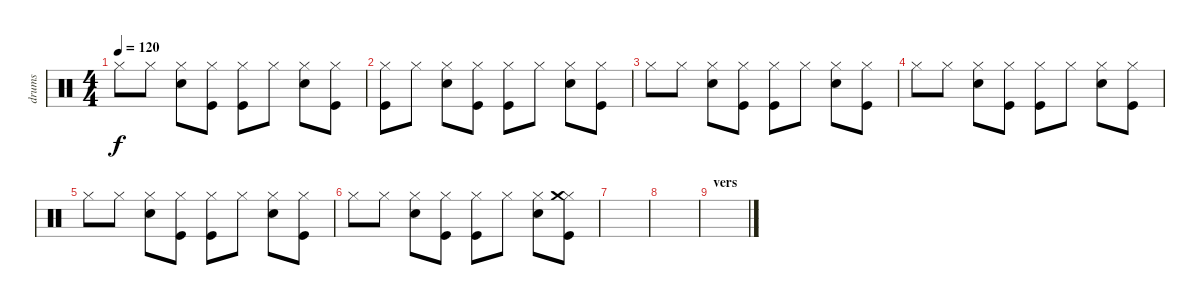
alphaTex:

\track ("drums" "drums") {instrument percussion}
\staff {score}
\articulation defaults
\ts (4 4)
\tempo 120
\clef neutral
\ks c "Hi-Hat (closed)".8{dy f} "Hi-Hat (closed)".8
("Electric Snare (hit)" "Hi-Hat (closed)").8 ("Kick (hit)" "Hi-Hat (closed)").8 ("Kick (hit)" "Hi-Hat (closed)").8 "Hi-Hat (closed)".8 ("Electric Snare (hit)" "Hi-Hat (closed)").8 ("Kick (hit)" "Hi-Hat (closed)").8 |
("Kick (hit)" "Hi-Hat (closed)").8 "Hi-Hat (closed)".8 ("Electric Snare (hit)" "Hi-Hat (closed)").8 ("Kick (hit)" "Hi-Hat (closed)").8 ("Kick (hit)" "Hi-Hat (closed)").8 "Hi-Hat (closed)".8 ("Electric Snare (hit)" "Hi-Hat (closed)").8 ("Kick (hit)" "Hi-Hat (closed)").8 |
"Hi-Hat (closed)".8 "Hi-Hat (closed)".8 ("Electric Snare (hit)" "Hi-Hat (closed)").8 ("Kick (hit)" "Hi-Hat (closed)").8 ("Kick (hit)" "Hi-Hat (closed)").8 "Hi-Hat (closed)".8 ("Electric Snare (hit)" "Hi-Hat (closed)").8 ("Kick (hit)" "Hi-Hat (closed)").8 |
"Hi-Hat (closed)".8 "Hi-Hat (closed)".8 ("Electric Snare (hit)" "Hi-Hat (closed)").8 ("Kick (hit)" "Hi-Hat (closed)").8 ("Kick (hit)" "Hi-Hat (closed)").8 "Hi-Hat (closed)".8 ("Electric Snare (hit)" "Hi-Hat (closed)").8 ("Kick (hit)" "Hi-Hat (closed)").8 |
"Hi-Hat (closed)".8 "Hi-Hat (closed)".8 ("Electric Snare (hit)" "Hi-Hat (closed)").8 ("Kick (hit)" "Hi-Hat (closed)").8 ("Kick (hit)" "Hi-Hat (closed)").8 "Hi-Hat (closed)".8 ("Electric Snare (hit)" "Hi-Hat (closed)").8 ("Kick (hit)" "Hi-Hat (closed)").8 |
"Hi-Hat (closed)".8 "Hi-Hat (closed)".8 ("Electric Snare (hit)" "Hi-Hat (closed)").8 ("Kick (hit)" "Hi-Hat (closed)").8 ("Kick (hit)" "Hi-Hat (closed)").8 "Hi-Hat (closed)".8 ("Electric Snare (hit)" "Hi-Hat (closed)").8 ("Kick (hit)" "Hi-Hat (closed)" "Crash medium (hit)").8 |
|
|
\section ("" "vers")
